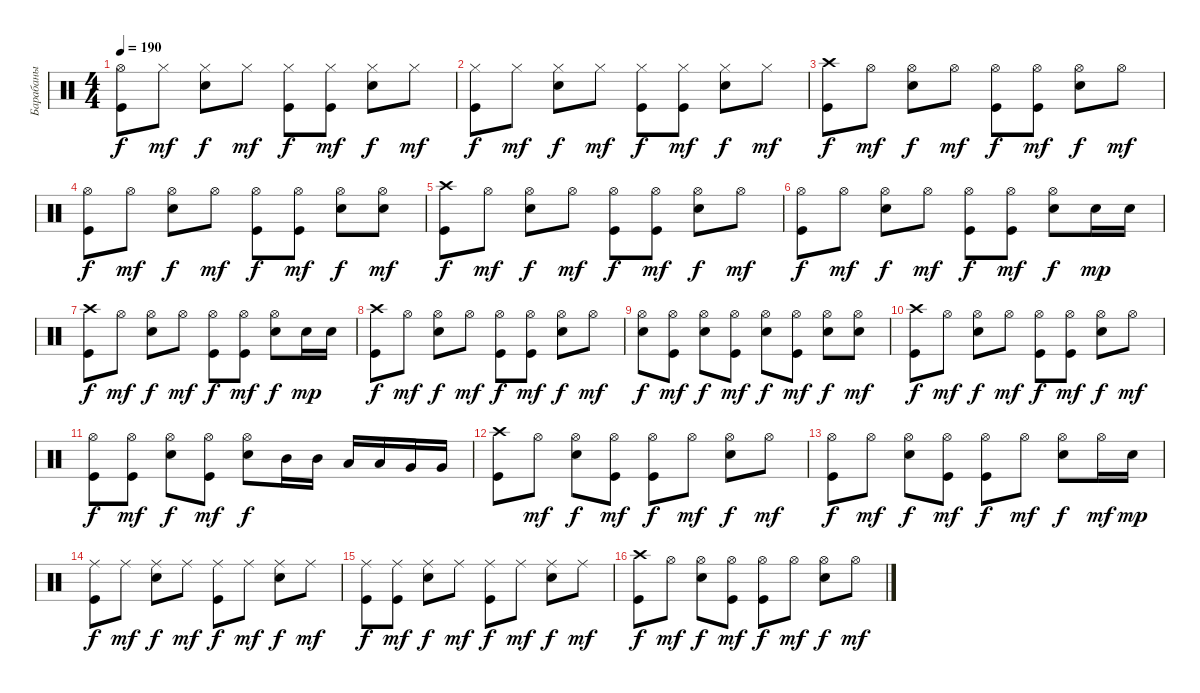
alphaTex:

\track ("Барабаны" "Барабаны") {instrument percussion}
\staff {score}
\articulation defaults
\ts (4 4)
\tempo 190
\clef neutral
\ks c
("Hi-Hat (open)" "Kick (hit)").8{dy f} "Hi-Hat (closed)".8{dy mf} ("Hi-Hat (closed)" "Electric Snare (hit)").8{dy f} "Hi-Hat (closed)".8{dy mf} ("Hi-Hat (closed)" "Kick (hit)").8{dy f} ("Hi-Hat (closed)" "Kick (hit)").8{dy mf} ("Hi-Hat (closed)" "Electric Snare (hit)").8{dy f} "Hi-Hat (closed)".8{dy mf} |
("Hi-Hat (closed)" "Kick (hit)").8{dy f} "Hi-Hat (closed)".8{dy mf} ("Hi-Hat (closed)" "Electric Snare (hit)").8{dy f} "Hi-Hat (closed)".8{dy mf} ("Hi-Hat (closed)" "Kick (hit)").8{dy f} ("Hi-Hat (closed)" "Kick (hit)").8{dy mf} ("Hi-Hat (closed)" "Electric Snare (hit)").8{dy f} "Hi-Hat (closed)".8{dy mf} |
("Crash high (hit)" "Kick (hit)").8{dy f} "Hi-Hat (open)".8{dy mf} ("Hi-Hat (open)" "Electric Snare (hit)").8{dy f} "Hi-Hat (open)".8{dy mf} ("Hi-Hat (open)" "Kick (hit)").8{dy f} ("Hi-Hat (open)" "Kick (hit)").8{dy mf} ("Hi-Hat (open)" "Electric Snare (hit)").8{dy f} "Hi-Hat (open)".8{dy mf} |
("Hi-Hat (open)" "Kick (hit)").8{dy f} "Hi-Hat (open)".8{dy mf} ("Hi-Hat (open)" "Electric Snare (hit)").8{dy f} "Hi-Hat (open)".8{dy mf} ("Hi-Hat (open)" "Kick (hit)").8{dy f} ("Hi-Hat (open)" "Kick (hit)").8{dy mf} ("Hi-Hat (open)" "Electric Snare (hit)").8{dy f} ("Hi-Hat (open)" "Electric Snare (hit)").8{dy mf} |
("Crash high (hit)" "Kick (hit)").8{dy f} "Hi-Hat (open)".8{dy mf} ("Hi-Hat (open)" "Electric Snare (hit)").8{dy f} "Hi-Hat (open)".8{dy mf} ("Hi-Hat (open)" "Kick (hit)").8{dy f} ("Hi-Hat (open)" "Kick (hit)").8{dy mf} ("Hi-Hat (open)" "Electric Snare (hit)").8{dy f} "Hi-Hat (open)".8{dy mf} |
("Hi-Hat (open)" "Kick (hit)").8{dy f} "Hi-Hat (open)".8{dy mf} ("Hi-Hat (open)" "Electric Snare (hit)").8{dy f} "Hi-Hat (open)".8{dy mf} ("Hi-Hat (open)" "Kick (hit)").8{dy f} ("Hi-Hat (open)" "Kick (hit)").8{dy mf} ("Hi-Hat (open)" "Electric Snare (hit)").8{dy f} "Electric Snare (hit)".16{dy mp} "Electric Snare (hit)".16 |
("Crash high (hit)" "Kick (hit)").8{dy f} "Hi-Hat (open)".8{dy mf} ("Hi-Hat (open)" "Electric Snare (hit)").8{dy f} "Hi-Hat (open)".8{dy mf} ("Hi-Hat (open)" "Kick (hit)").8{dy f} ("Hi-Hat (open)" "Kick (hit)").8{dy mf} ("Hi-Hat (open)" "Electric Snare (hit)").8{dy f} "Electric Snare (hit)".16{dy mp} "Electric Snare (hit)".16 |
("Crash high (hit)" "Kick (hit)").8{dy f} "Hi-Hat (open)".8{dy mf} ("Hi-Hat (open)" "Electric Snare (hit)").8{dy f} "Hi-Hat (open)".8{dy mf} ("Hi-Hat (open)" "Kick (hit)").8{dy f} ("Hi-Hat (open)" "Kick (hit)").8{dy mf} ("Hi-Hat (open)" "Electric Snare (hit)").8{dy f} "Hi-Hat (open)".8{dy mf} |
("Hi-Hat (open)" "Electric Snare (hit)").8{dy f} ("Hi-Hat (open)" "Kick (hit)").8{dy mf} ("Hi-Hat (open)" "Electric Snare (hit)").8{dy f} ("Hi-Hat (open)" "Kick (hit)").8{dy mf} ("Hi-Hat (open)" "Electric Snare (hit)").8{dy f} ("Hi-Hat (open)" "Kick (hit)").8{dy mf} ("Hi-Hat (open)" "Electric Snare (hit)").8{dy f} ("Hi-Hat (open)" "Electric Snare (hit)").8{dy mf} |
("Crash high (hit)" "Kick (hit)").8{dy f} "Hi-Hat (open)".8{dy mf} ("Hi-Hat (open)" "Electric Snare (hit)").8{dy f} "Hi-Hat (open)".8{dy mf} ("Hi-Hat (open)" "Kick (hit)").8{dy f} ("Hi-Hat (open)" "Kick (hit)").8{dy mf} ("Hi-Hat (open)" "Electric Snare (hit)").8{dy f} "Hi-Hat (open)".8{dy mf} |
("Hi-Hat (open)" "Kick (hit)").8{dy f} ("Hi-Hat (open)" "Kick (hit)").8{dy mf} ("Hi-Hat (open)" "Electric Snare (hit)").8{dy f} ("Hi-Hat (open)" "Kick (hit)").8{dy mf} ("Hi-Hat (open)" "Electric Snare (hit)").8{dy f} "Mid Tom (hit)".16 "Mid Tom (hit)".16 "Low Tom (hit)".16 "Low Tom (hit)".16 "Very Low Tom (hit)".16 "Very Low Tom (hit)".16 |
("Crash high (hit)" "Kick (hit)").8 "Hi-Hat (open)".8{dy mf} ("Hi-Hat (open)" "Electric Snare (hit)").8{dy f} ("Hi-Hat (open)" "Kick (hit)").8{dy mf} ("Hi-Hat (open)" "Kick (hit)").8{dy f} "Hi-Hat (open)".8{dy mf} ("Hi-Hat (open)" "Electric Snare (hit)").8{dy f} "Hi-Hat (open)".8{dy mf} |
("Hi-Hat (open)" "Kick (hit)").8{dy f} "Hi-Hat (open)".8{dy mf} ("Hi-Hat (open)" "Electric Snare (hit)").8{dy f} ("Hi-Hat (open)" "Kick (hit)").8{dy mf} ("Hi-Hat (open)" "Kick (hit)").8{dy f} "Hi-Hat (open)".8{dy mf} ("Hi-Hat (open)" "Electric Snare (hit)").8{dy f} "Hi-Hat (open)".16{dy mf} "Electric Snare (hit)".16{dy mp} |
("Ride (middle)" "Kick (hit)").8{dy f} "Ride (middle)".8{dy mf} ("Ride (middle)" "Electric Snare (hit)").8{dy f} "Ride (middle)".8{dy mf} ("Ride (middle)" "Kick (hit)").8{dy f} "Ride (middle)".8{dy mf} ("Ride (middle)" "Electric Snare (hit)").8{dy f} "Ride (middle)".8{dy mf} |
("Ride (middle)" "Kick (hit)").8{dy f} ("Ride (middle)" "Kick (hit)").8{dy mf} ("Ride (middle)" "Electric Snare (hit)").8{dy f} "Ride (middle)".8{dy mf} ("Ride (middle)" "Kick (hit)").8{dy f} "Ride (middle)".8{dy mf} ("Ride (middle)" "Electric Snare (hit)").8{dy f} "Ride (middle)".8{dy mf} |
("Crash high (hit)" "Kick (hit)").8{dy f} "Hi-Hat (open)".8{dy mf} ("Hi-Hat (open)" "Electric Snare (hit)").8{dy f} ("Hi-Hat (open)" "Kick (hit)").8{dy mf} ("Hi-Hat (open)" "Kick (hit)").8{dy f} "Hi-Hat (open)".8{dy mf} ("Hi-Hat (open)" "Electric Snare (hit)").8{dy f} "Hi-Hat (open)".8{dy mf}
